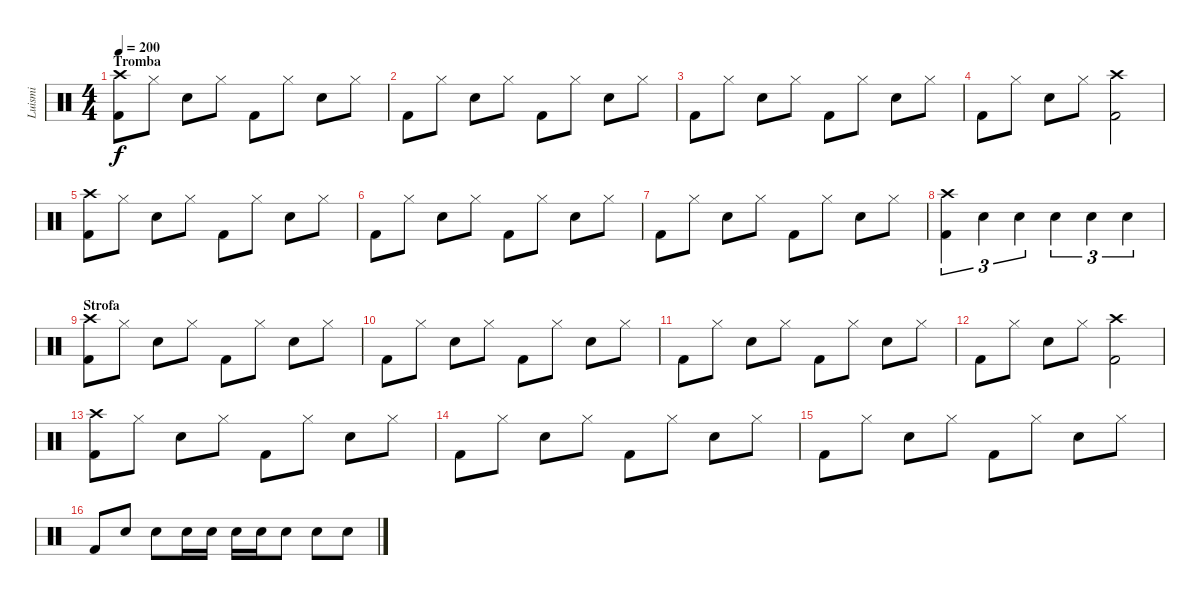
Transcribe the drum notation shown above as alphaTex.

\track ("Luismi" "Luismi") {instrument percussion}
\staff {score}
\articulation defaults
\ts (4 4)
\section ("" "Tromba")
\tempo 200
\clef neutral
\ks c
("Kick (hit) 2" "Crash high (hit)").8{dy f} "Hi-Hat (closed)".8 "Electric Snare (hit)".8 "Hi-Hat (closed)".8 "Kick (hit) 2".8 "Hi-Hat (closed)".8 "Electric Snare (hit)".8 "Hi-Hat (closed)".8 |
"Kick (hit) 2".8 "Hi-Hat (closed)".8 "Electric Snare (hit)".8 "Hi-Hat (closed)".8 "Kick (hit) 2".8 "Hi-Hat (closed)".8 "Electric Snare (hit)".8 "Hi-Hat (closed)".8 |
"Kick (hit) 2".8 "Hi-Hat (closed)".8 "Electric Snare (hit)".8 "Hi-Hat (closed)".8 "Kick (hit) 2".8 "Hi-Hat (closed)".8 "Electric Snare (hit)".8 "Hi-Hat (closed)".8 |
"Kick (hit) 2".8 "Hi-Hat (closed)".8 "Electric Snare (hit)".8 "Hi-Hat (closed)".8 ("Kick (hit) 2" "Crash high (hit)").2 |
("Kick (hit) 2" "Crash high (hit)").8 "Hi-Hat (closed)".8 "Electric Snare (hit)".8 "Hi-Hat (closed)".8 "Kick (hit) 2".8 "Hi-Hat (closed)".8 "Electric Snare (hit)".8 "Hi-Hat (closed)".8 |
"Kick (hit) 2".8 "Hi-Hat (closed)".8 "Electric Snare (hit)".8 "Hi-Hat (closed)".8 "Kick (hit) 2".8 "Hi-Hat (closed)".8 "Electric Snare (hit)".8 "Hi-Hat (closed)".8 |
"Kick (hit) 2".8 "Hi-Hat (closed)".8 "Electric Snare (hit)".8 "Hi-Hat (closed)".8 "Kick (hit) 2".8 "Hi-Hat (closed)".8 "Electric Snare (hit)".8 "Hi-Hat (closed)".8 |
("Kick (hit) 2" "Crash high (hit)").4{tu (3 2)} "Electric Snare (hit)".4{tu (3 2)} "Electric Snare (hit)".4{tu (3 2)} "Electric Snare (hit)".4{tu (3 2)} "Electric Snare (hit)".4{tu (3 2)} "Electric Snare (hit)".4{tu (3 2)} |
\section ("" "Strofa")
("Kick (hit) 2" "Crash high (hit)").8 "Hi-Hat (closed)".8 "Electric Snare (hit)".8 "Hi-Hat (closed)".8 "Kick (hit) 2".8 "Hi-Hat (closed)".8 "Electric Snare (hit)".8 "Hi-Hat (closed)".8 |
"Kick (hit) 2".8 "Hi-Hat (closed)".8 "Electric Snare (hit)".8 "Hi-Hat (closed)".8 "Kick (hit) 2".8 "Hi-Hat (closed)".8 "Electric Snare (hit)".8 "Hi-Hat (closed)".8 |
"Kick (hit) 2".8 "Hi-Hat (closed)".8 "Electric Snare (hit)".8 "Hi-Hat (closed)".8 "Kick (hit) 2".8 "Hi-Hat (closed)".8 "Electric Snare (hit)".8 "Hi-Hat (closed)".8 |
"Kick (hit) 2".8 "Hi-Hat (closed)".8 "Electric Snare (hit)".8 "Hi-Hat (closed)".8 ("Kick (hit) 2" "Crash high (hit)").2 |
("Kick (hit) 2" "Crash high (hit)").8 "Hi-Hat (closed)".8 "Electric Snare (hit)".8 "Hi-Hat (closed)".8 "Kick (hit) 2".8 "Hi-Hat (closed)".8 "Electric Snare (hit)".8 "Hi-Hat (closed)".8 |
"Kick (hit) 2".8 "Hi-Hat (closed)".8 "Electric Snare (hit)".8 "Hi-Hat (closed)".8 "Kick (hit) 2".8 "Hi-Hat (closed)".8 "Electric Snare (hit)".8 "Hi-Hat (closed)".8 |
"Kick (hit) 2".8 "Hi-Hat (closed)".8 "Electric Snare (hit)".8 "Hi-Hat (closed)".8 "Kick (hit) 2".8 "Hi-Hat (closed)".8 "Electric Snare (hit)".8 "Hi-Hat (closed)".8 |
"Kick (hit) 2".8 "Electric Snare (hit)".8 "Electric Snare (hit)".8 "Electric Snare (hit)".16 "Electric Snare (hit)".16 "Electric Snare (hit)".16 "Electric Snare (hit)".16 "Electric Snare (hit)".8 "Electric Snare (hit)".8 "Electric Snare (hit)".8
